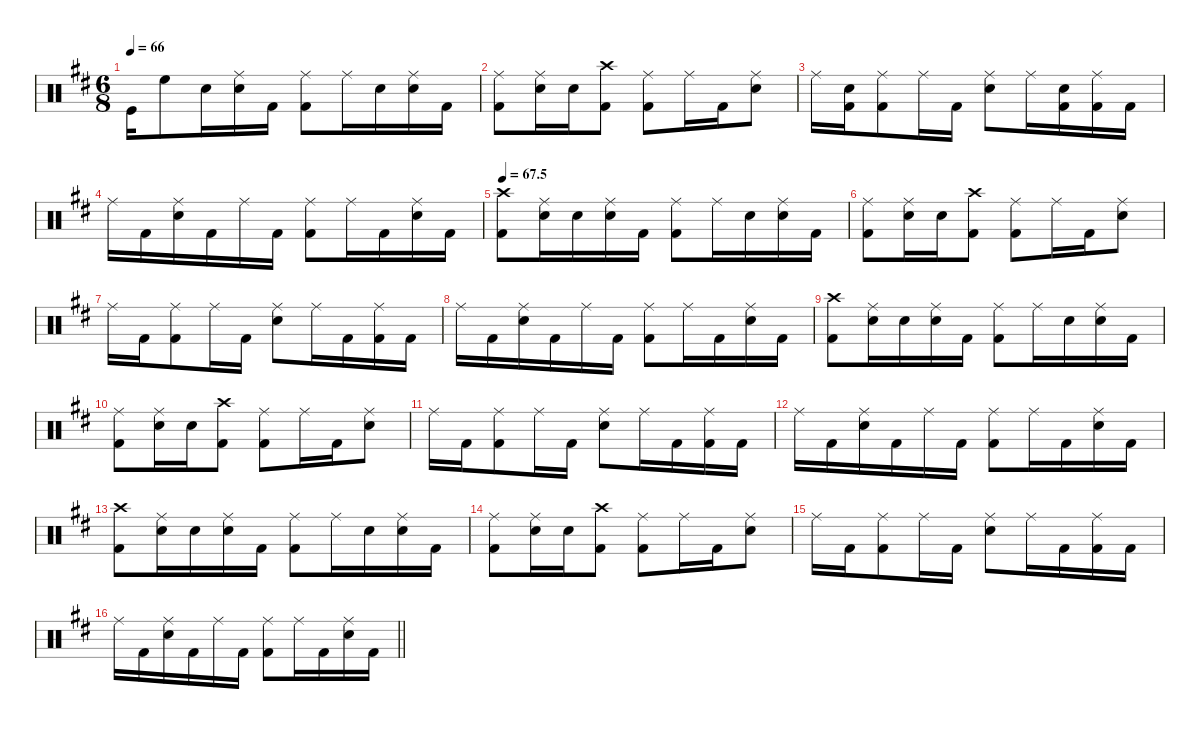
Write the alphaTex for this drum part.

\defaultSystemsLayout 4
\hideDynamics
\bracketExtendMode groupsimilarinstruments
\singleTrackTrackNamePolicy hidden
\multiTrackTrackNamePolicy hidden
\firstSystemTrackNameMode fullname
\firstSystemTrackNameOrientation horizontal
\otherSystemsTrackNameOrientation horizontal
\track ("Drumkit" "drm.") {defaultSystemsLayout 4 instrument percussion}
\staff {score}
\articulation defaults
\ts (6 8)
\tempo 66
\clef neutral
\ks bminor "Kick (hit)"{acc forcenatural}.16{dy f beam Down} "High Floor Tom (hit)"{acc forcenatural}.8{dy mf beam Down} "Snare (hit) 2"{acc forcenatural}.16{dy ff beam Down}
("Snare (hit) 2"{acc forcenatural} "Ride (middle)"{acc #}).16{beam Down} "Kick (hit) 2"{acc forcenatural}.16{beam Down} ("Ride (middle)"{acc #} "Kick (hit) 2"{acc forcenatural}).8{beam Down} "Ride (middle)"{acc #}.16{beam Down} "Snare (hit) 2"{acc forcenatural}.16{beam Down} ("Ride (middle)"{acc #} "Snare (hit) 2"{acc forcenatural}).16{beam Down} "Kick (hit) 2"{acc forcenatural}.16{beam Down} |
("Kick (hit) 2"{acc forcenatural} "Ride (middle)"{acc #}).8{beam Down} ("Snare (hit) 2"{acc forcenatural} "Ride (middle)"{acc #}).16{beam Down} "Snare (hit) 2"{acc forcenatural}.16{beam Down} ("Kick (hit) 2"{acc forcenatural} "Crash high (hit)"{acc #}).8{beam Down} ("Ride (middle)"{acc #} "Kick (hit) 2"{acc forcenatural}).8{beam Down} "Ride (middle)"{acc #}.16{beam Down} "Kick (hit) 2"{acc forcenatural}.16{beam Down} ("Ride (middle)"{acc #} "Snare (hit) 2"{acc forcenatural}).8{beam Down} |
"Ride (middle)"{acc #}.16{beam Down} ("Snare (hit) 2"{acc forcenatural} "Kick (hit) 2"{acc forcenatural}).16{beam Down} ("Ride (middle)"{acc #} "Kick (hit) 2"{acc forcenatural}).8{beam Down} "Ride (middle)"{acc #}.16{beam Down} "Kick (hit) 2"{acc forcenatural}.16{beam Down} ("Ride (middle)"{acc #} "Snare (hit) 2"{acc forcenatural}).8{beam Down} "Ride (middle)"{acc #}.16{beam Down} ("Snare (hit) 2"{acc forcenatural} "Kick (hit) 2"{acc forcenatural}).16{beam Down} ("Kick (hit) 2"{acc forcenatural} "Ride (middle)"{acc #}).16{beam Down} "Kick (hit) 2"{acc forcenatural}.16{beam Down} |
"Ride (middle)"{acc #}.16{beam Down} "Kick (hit) 2"{acc forcenatural}.16{beam Down} ("Ride (middle)"{acc #} "Snare (hit) 2"{acc forcenatural}).16{beam Down} "Kick (hit) 2"{acc forcenatural}.16{beam Down} "Ride (middle)"{acc #}.16{beam Down} "Kick (hit) 2"{acc forcenatural}.16{beam Down} ("Ride (middle)"{acc #} "Kick (hit) 2"{acc forcenatural}).8{beam Down} "Ride (middle)"{acc #}.16{beam Down} "Kick (hit) 2"{acc forcenatural}.16{beam Down} ("Ride (middle)"{acc #} "Snare (hit) 2"{acc forcenatural}).16{beam Down} "Kick (hit) 2"{acc forcenatural}.16{beam Down} |
\tempo
67.5 ("Kick (hit) 2"{acc forcenatural} "Crash high (hit)"{acc #}).8{beam Down} ("Snare (hit) 2"{acc forcenatural} "Ride (middle)"{acc #}).16{beam Down} "Snare (hit) 2"{acc forcenatural}.16{beam Down} ("Snare (hit) 2"{acc forcenatural} "Ride (middle)"{acc #}).16{beam Down} "Kick (hit) 2"{acc forcenatural}.16{beam Down} ("Ride (middle)"{acc #} "Kick (hit) 2"{acc forcenatural}).8{beam Down} "Ride (middle)"{acc #}.16{beam Down} "Snare (hit) 2"{acc forcenatural}.16{beam Down} ("Ride (middle)"{acc #} "Snare (hit) 2"{acc forcenatural}).16{beam Down} "Kick (hit) 2"{acc forcenatural}.16{beam Down} |
("Kick (hit) 2"{acc forcenatural} "Ride (middle)"{acc #}).8{beam Down} ("Snare (hit) 2"{acc forcenatural} "Ride (middle)"{acc #}).16{beam Down} "Snare (hit) 2"{acc forcenatural}.16{beam Down} ("Kick (hit) 2"{acc forcenatural} "Crash high (hit)"{acc #}).8{beam Down} ("Ride (middle)"{acc #} "Kick (hit) 2"{acc forcenatural}).8{beam Down} "Ride (middle)"{acc #}.16{beam Down} "Kick (hit) 2"{acc forcenatural}.16{beam Down} ("Ride (middle)"{acc #} "Snare (hit) 2"{acc forcenatural}).8{beam Down} |
"Ride (middle)"{acc #}.16{beam Down} "Kick (hit) 2"{acc forcenatural}.16{beam Down} ("Ride (middle)"{acc #} "Kick (hit) 2"{acc forcenatural}).8{beam Down} "Ride (middle)"{acc #}.16{beam Down} "Kick (hit) 2"{acc forcenatural}.16{beam Down} ("Ride (middle)"{acc #} "Snare (hit) 2"{acc forcenatural}).8{beam Down} "Ride (middle)"{acc #}.16{beam Down} "Kick (hit) 2"{acc forcenatural}.16{beam Down} ("Kick (hit) 2"{acc forcenatural} "Ride (middle)"{acc #}).16{beam Down} "Kick (hit) 2"{acc forcenatural}.16{beam Down} |
"Ride (middle)"{acc #}.16{beam Down} "Kick (hit) 2"{acc forcenatural}.16{beam Down} ("Ride (middle)"{acc #} "Snare (hit) 2"{acc forcenatural}).16{beam Down} "Kick (hit) 2"{acc forcenatural}.16{beam Down} "Ride (middle)"{acc #}.16{beam Down} "Kick (hit) 2"{acc forcenatural}.16{beam Down} ("Ride (middle)"{acc #} "Kick (hit) 2"{acc forcenatural}).8{beam Down} "Ride (middle)"{acc #}.16{beam Down} "Kick (hit) 2"{acc forcenatural}.16{beam Down} ("Ride (middle)"{acc #} "Snare (hit) 2"{acc forcenatural}).16{beam Down} "Kick (hit) 2"{acc forcenatural}.16{beam Down} |
("Kick (hit) 2"{acc forcenatural} "Crash high (hit)"{acc #}).8{beam Down} ("Snare (hit) 2"{acc forcenatural} "Ride (middle)"{acc #}).16{beam Down} "Snare (hit) 2"{acc forcenatural}.16{beam Down} ("Snare (hit) 2"{acc forcenatural} "Ride (middle)"{acc #}).16{beam Down} "Kick (hit) 2"{acc forcenatural}.16{beam Down} ("Ride (middle)"{acc #} "Kick (hit) 2"{acc forcenatural}).8{beam Down} "Ride (middle)"{acc #}.16{beam Down} "Snare (hit) 2"{acc forcenatural}.16{beam Down} ("Ride (middle)"{acc #} "Snare (hit) 2"{acc forcenatural}).16{beam Down} "Kick (hit) 2"{acc forcenatural}.16{beam Down} |
("Kick (hit) 2"{acc forcenatural} "Ride (middle)"{acc #}).8{beam Down} ("Snare (hit) 2"{acc forcenatural} "Ride (middle)"{acc #}).16{beam Down} "Snare (hit) 2"{acc forcenatural}.16{beam Down} ("Kick (hit) 2"{acc forcenatural} "Crash high (hit)"{acc #}).8{beam Down} ("Ride (middle)"{acc #} "Kick (hit) 2"{acc forcenatural}).8{beam Down} "Ride (middle)"{acc #}.16{beam Down} "Kick (hit) 2"{acc forcenatural}.16{beam Down} ("Ride (middle)"{acc #} "Snare (hit) 2"{acc forcenatural}).8{beam Down} |
"Ride (middle)"{acc #}.16{beam Down} "Kick (hit) 2"{acc forcenatural}.16{beam Down} ("Ride (middle)"{acc #} "Kick (hit) 2"{acc forcenatural}).8{beam Down} "Ride (middle)"{acc #}.16{beam Down} "Kick (hit) 2"{acc forcenatural}.16{beam Down} ("Ride (middle)"{acc #} "Snare (hit) 2"{acc forcenatural}).8{beam Down} "Ride (middle)"{acc #}.16{beam Down} "Kick (hit) 2"{acc forcenatural}.16{beam Down} ("Kick (hit) 2"{acc forcenatural} "Ride (middle)"{acc #}).16{beam Down} "Kick (hit) 2"{acc forcenatural}.16{beam Down} |
"Ride (middle)"{acc #}.16{beam Down} "Kick (hit) 2"{acc forcenatural}.16{beam Down} ("Ride (middle)"{acc #} "Snare (hit) 2"{acc forcenatural}).16{beam Down} "Kick (hit) 2"{acc forcenatural}.16{beam Down} "Ride (middle)"{acc #}.16{beam Down} "Kick (hit) 2"{acc forcenatural}.16{beam Down} ("Ride (middle)"{acc #} "Kick (hit) 2"{acc forcenatural}).8{beam Down} "Ride (middle)"{acc #}.16{beam Down} "Kick (hit) 2"{acc forcenatural}.16{beam Down} ("Ride (middle)"{acc #} "Snare (hit) 2"{acc forcenatural}).16{beam Down} "Kick (hit) 2"{acc forcenatural}.16{beam Down} |
("Kick (hit) 2"{acc forcenatural} "Crash high (hit)"{acc #}).8{beam Down} ("Snare (hit) 2"{acc forcenatural} "Ride (middle)"{acc #}).16{beam Down} "Snare (hit) 2"{acc forcenatural}.16{beam Down} ("Snare (hit) 2"{acc forcenatural} "Ride (middle)"{acc #}).16{beam Down} "Kick (hit) 2"{acc forcenatural}.16{beam Down} ("Ride (middle)"{acc #} "Kick (hit) 2"{acc forcenatural}).8{beam Down} "Ride (middle)"{acc #}.16{beam Down} "Snare (hit) 2"{acc forcenatural}.16{beam Down} ("Ride (middle)"{acc #} "Snare (hit) 2"{acc forcenatural}).16{beam Down} "Kick (hit) 2"{acc forcenatural}.16{beam Down} |
("Kick (hit) 2"{acc forcenatural} "Ride (middle)"{acc #}).8{beam Down} ("Snare (hit) 2"{acc forcenatural} "Ride (middle)"{acc #}).16{beam Down} "Snare (hit) 2"{acc forcenatural}.16{beam Down} ("Kick (hit) 2"{acc forcenatural} "Crash high (hit)"{acc #}).8{beam Down} ("Ride (middle)"{acc #} "Kick (hit) 2"{acc forcenatural}).8{beam Down} "Ride (middle)"{acc #}.16{beam Down} "Kick (hit) 2"{acc forcenatural}.16{beam Down} ("Ride (middle)"{acc #} "Snare (hit) 2"{acc forcenatural}).8{beam Down} |
"Ride (middle)"{acc #}.16{beam Down} "Kick (hit) 2"{acc forcenatural}.16{beam Down} ("Ride (middle)"{acc #} "Kick (hit) 2"{acc forcenatural}).8{beam Down} "Ride (middle)"{acc #}.16{beam Down} "Kick (hit) 2"{acc forcenatural}.16{beam Down} ("Ride (middle)"{acc #} "Snare (hit) 2"{acc forcenatural}).8{beam Down} "Ride (middle)"{acc #}.16{beam Down} "Kick (hit) 2"{acc forcenatural}.16{beam Down} ("Kick (hit) 2"{acc forcenatural} "Ride (middle)"{acc #}).16{beam Down} "Kick (hit) 2"{acc forcenatural}.16{beam Down} |
\barLineRight lightlight "Ride (middle)"{acc #}.16{beam Down} "Kick (hit) 2"{acc forcenatural}.16{beam Down}
("Ride (middle)"{acc #} "Snare (hit) 2"{acc forcenatural}).16{beam Down} "Kick (hit) 2"{acc forcenatural}.16{beam Down} "Ride (middle)"{acc #}.16{beam Down} "Kick (hit) 2"{acc forcenatural}.16{beam Down} ("Ride (middle)"{acc #} "Kick (hit) 2"{acc forcenatural}).8{beam Down} "Ride (middle)"{acc #}.16{beam Down} "Kick (hit) 2"{acc forcenatural}.16{beam Down} ("Ride (middle)"{acc #} "Snare (hit) 2"{acc forcenatural}).16{beam Down} "Kick (hit) 2"{acc forcenatural}.16{beam Down}
